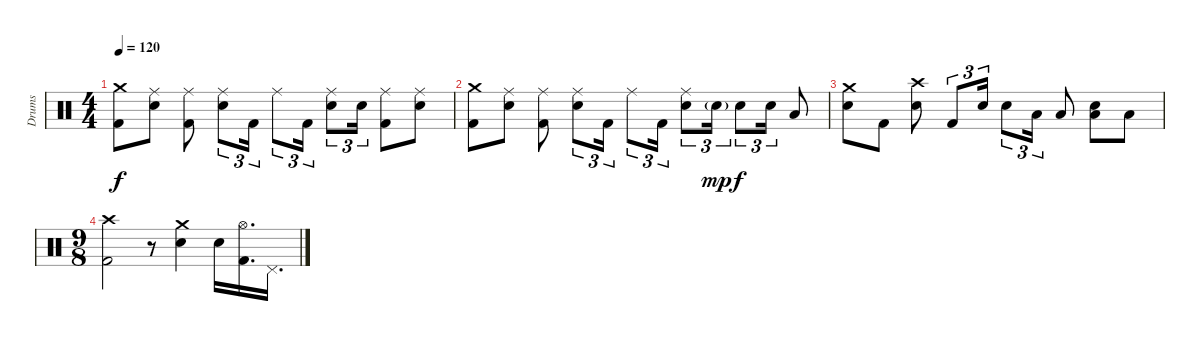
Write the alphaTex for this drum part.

\track ("Drums" "Drums") {instrument percussion}
\staff {score}
\articulation defaults
\ts (4 4)
\tempo 120
\clef neutral
\ks c
("Crash medium (hit)" "Kick (hit) 2").8{dy f} ("Ride (middle)" "Electric Snare (hit)").8 ("Ride (middle)" "Kick (hit) 2").8 ("Ride (middle)" "Electric Snare (hit)").8{tu (3 2)} "Kick (hit) 2".16{tu (3 2)} "Ride (middle)".8{tu (3 2)} "Kick (hit) 2".16{tu (3 2)} ("Ride (middle)" "Electric Snare (hit)").8{tu (3 2)} "Electric Snare (hit)".16{tu (3 2)} ("Ride (middle)" "Kick (hit) 2").8 ("Ride (middle)" "Electric Snare (hit)").8 |
("Crash medium (hit)" "Kick (hit) 2").8 ("Ride (middle)" "Electric Snare (hit)").8 ("Ride (middle)" "Kick (hit) 2").8 ("Ride (middle)" "Electric Snare (hit)").8{tu (3 2)} "Kick (hit) 2".16{tu (3 2)} "Ride (middle)".8{tu (3 2)} "Kick (hit) 2".16{tu (3 2)} ("Ride (middle)" "Electric Snare (hit)").8{tu (3 2)} "Electric Snare (hit)"{g}.16{tu (3 2) dy mp} "Electric Snare (hit)".8{tu (3 2) dy f} "Electric Snare (hit)".16{tu (3 2)} "Low Tom (hit)".8 |
("Crash medium (hit)" "Electric Snare (hit)").8 "Kick (hit) 2".8 ("Crash high (hit)" "Electric Snare (hit)").8 "Kick (hit) 2".8{tu (3 2)} "Electric Snare (hit)".16{tu (3 2)} "Electric Snare (hit)".8{tu (3 2)} "Low Tom (hit)".16{tu (3 2)} "Low Floor Tom (hit)".8 ("Low Tom (hit)" "Electric Snare (hit)").8 "Low Floor Tom (hit)".8 |
\ts (9 8)
("Crash high (hit)" "Kick (hit) 2").2 r.8 ("Crash medium (hit)" "Electric Snare (hit)").4 "Electric Snare (hit)".16 ("Hi-Hat (open)" "Kick (hit) 2").16{d} "Pedal Hi-Hat (hit)".16{d}
